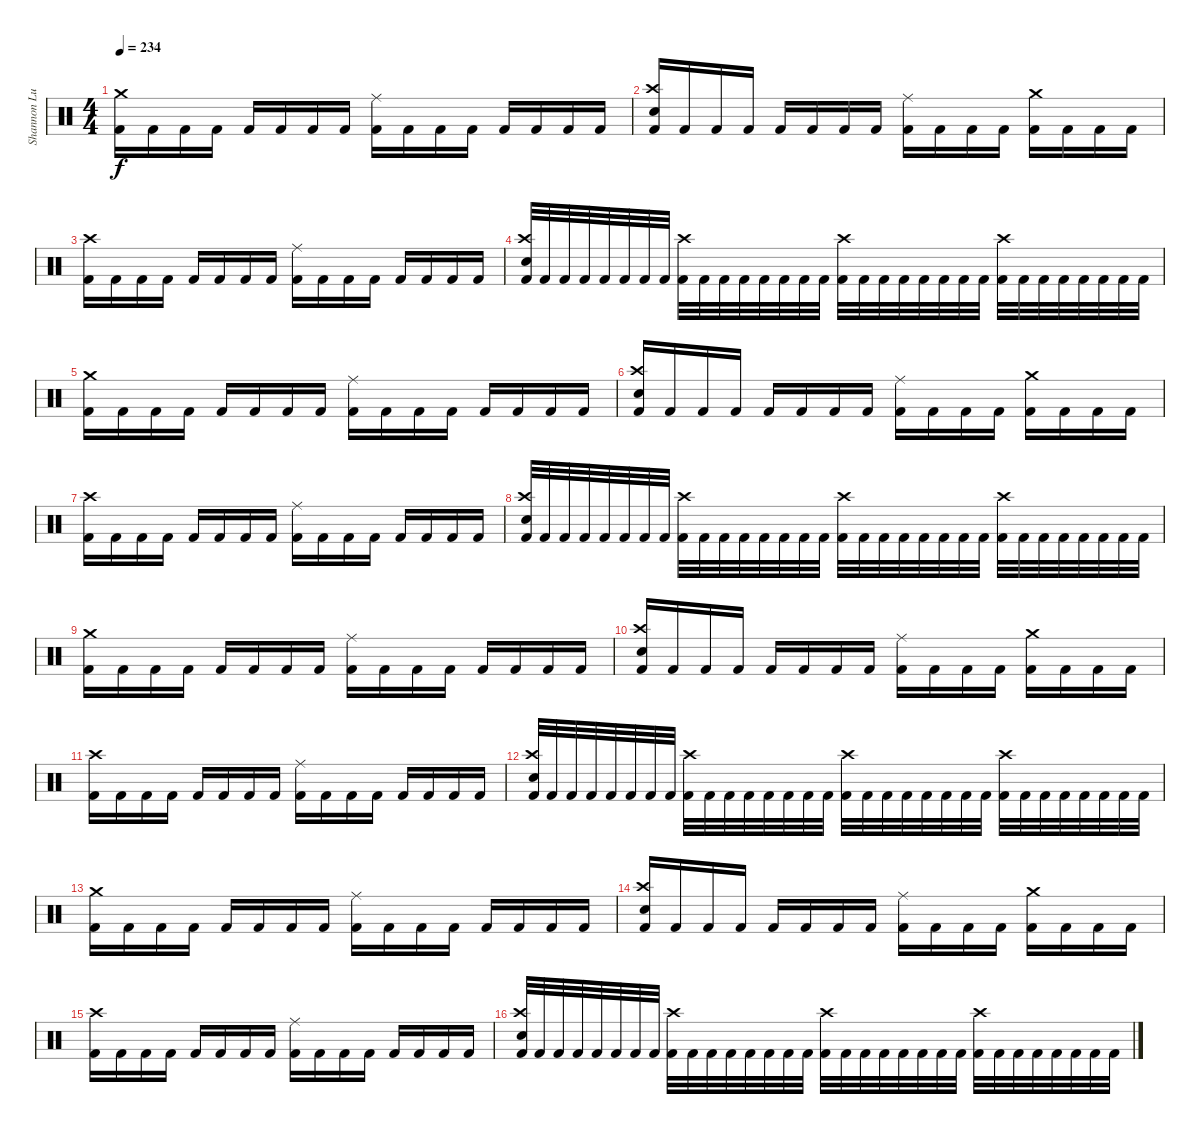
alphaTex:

\track ("Shannon Lucas (Drums)" "Shannon Lu") {instrument percussion}
\staff {score}
\articulation defaults
\ts (4 4)
\tempo 234
\clef neutral
\ks c
("Crash medium (hit)" "Kick (hit) 2").16{dy f} "Kick (hit) 2".16 "Kick (hit) 2".16 "Kick (hit) 2".16 "Kick (hit) 2".16 "Kick (hit) 2".16 "Kick (hit) 2".16 "Kick (hit) 2".16 ("Ride (middle)" "Kick (hit) 2").16 "Kick (hit) 2".16 "Kick (hit) 2".16 "Kick (hit) 2".16 "Kick (hit) 2".16 "Kick (hit) 2".16 "Kick (hit) 2".16 "Kick (hit) 2".16 |
("Crash high (hit)" "Electric Snare (hit)" "Kick (hit) 2").16 "Kick (hit) 2".16 "Kick (hit) 2".16 "Kick (hit) 2".16 "Kick (hit) 2".16 "Kick (hit) 2".16 "Kick (hit) 2".16 "Kick (hit) 2".16 ("Ride (middle)" "Kick (hit) 2").16 "Kick (hit) 2".16 "Kick (hit) 2".16 "Kick (hit) 2".16 ("Crash medium (hit)" "Kick (hit) 2").16 "Kick (hit) 2".16 "Kick (hit) 2".16 "Kick (hit) 2".16 |
("Crash high (hit)" "Kick (hit) 2").16 "Kick (hit) 2".16 "Kick (hit) 2".16 "Kick (hit) 2".16 "Kick (hit) 2".16 "Kick (hit) 2".16 "Kick (hit) 2".16 "Kick (hit) 2".16 ("Ride (middle)" "Kick (hit) 2").16 "Kick (hit) 2".16 "Kick (hit) 2".16 "Kick (hit) 2".16 "Kick (hit) 2".16 "Kick (hit) 2".16 "Kick (hit) 2".16 "Kick (hit) 2".16 |
("Crash high (hit)" "Electric Snare (hit)" "Kick (hit) 2").32 "Kick (hit) 2".32 "Kick (hit) 2".32 "Kick (hit) 2".32 "Kick (hit) 2".32 "Kick (hit) 2".32 "Kick (hit) 2".32 "Kick (hit) 2".32 ("Crash high (hit)" "Kick (hit) 2").32 "Kick (hit) 2".32 "Kick (hit) 2".32 "Kick (hit) 2".32 "Kick (hit) 2".32 "Kick (hit) 2".32 "Kick (hit) 2".32 "Kick (hit) 2".32 ("Crash high (hit)" "Kick (hit) 2").32 "Kick (hit) 2".32 "Kick (hit) 2".32 "Kick (hit) 2".32 "Kick (hit) 2".32 "Kick (hit) 2".32 "Kick (hit) 2".32 "Kick (hit) 2".32 ("Crash high (hit)" "Kick (hit) 2").32 "Kick (hit) 2".32 "Kick (hit) 2".32 "Kick (hit) 2".32 "Kick (hit) 2".32 "Kick (hit) 2".32 "Kick (hit) 2".32 "Kick (hit) 2".32 |
("Crash medium (hit)" "Kick (hit) 2").16 "Kick (hit) 2".16 "Kick (hit) 2".16 "Kick (hit) 2".16 "Kick (hit) 2".16 "Kick (hit) 2".16 "Kick (hit) 2".16 "Kick (hit) 2".16 ("Ride (middle)" "Kick (hit) 2").16 "Kick (hit) 2".16 "Kick (hit) 2".16 "Kick (hit) 2".16 "Kick (hit) 2".16 "Kick (hit) 2".16 "Kick (hit) 2".16 "Kick (hit) 2".16 |
("Crash high (hit)" "Electric Snare (hit)" "Kick (hit) 2").16 "Kick (hit) 2".16 "Kick (hit) 2".16 "Kick (hit) 2".16 "Kick (hit) 2".16 "Kick (hit) 2".16 "Kick (hit) 2".16 "Kick (hit) 2".16 ("Ride (middle)" "Kick (hit) 2").16 "Kick (hit) 2".16 "Kick (hit) 2".16 "Kick (hit) 2".16 ("Crash medium (hit)" "Kick (hit) 2").16 "Kick (hit) 2".16 "Kick (hit) 2".16 "Kick (hit) 2".16 |
("Crash high (hit)" "Kick (hit) 2").16 "Kick (hit) 2".16 "Kick (hit) 2".16 "Kick (hit) 2".16 "Kick (hit) 2".16 "Kick (hit) 2".16 "Kick (hit) 2".16 "Kick (hit) 2".16 ("Ride (middle)" "Kick (hit) 2").16 "Kick (hit) 2".16 "Kick (hit) 2".16 "Kick (hit) 2".16 "Kick (hit) 2".16 "Kick (hit) 2".16 "Kick (hit) 2".16 "Kick (hit) 2".16 |
("Crash high (hit)" "Electric Snare (hit)" "Kick (hit) 2").32 "Kick (hit) 2".32 "Kick (hit) 2".32 "Kick (hit) 2".32 "Kick (hit) 2".32 "Kick (hit) 2".32 "Kick (hit) 2".32 "Kick (hit) 2".32 ("Crash high (hit)" "Kick (hit) 2").32 "Kick (hit) 2".32 "Kick (hit) 2".32 "Kick (hit) 2".32 "Kick (hit) 2".32 "Kick (hit) 2".32 "Kick (hit) 2".32 "Kick (hit) 2".32 ("Crash high (hit)" "Kick (hit) 2").32 "Kick (hit) 2".32 "Kick (hit) 2".32 "Kick (hit) 2".32 "Kick (hit) 2".32 "Kick (hit) 2".32 "Kick (hit) 2".32 "Kick (hit) 2".32 ("Crash high (hit)" "Kick (hit) 2").32 "Kick (hit) 2".32 "Kick (hit) 2".32 "Kick (hit) 2".32 "Kick (hit) 2".32 "Kick (hit) 2".32 "Kick (hit) 2".32 "Kick (hit) 2".32 |
("Crash medium (hit)" "Kick (hit) 2").16 "Kick (hit) 2".16 "Kick (hit) 2".16 "Kick (hit) 2".16 "Kick (hit) 2".16 "Kick (hit) 2".16 "Kick (hit) 2".16 "Kick (hit) 2".16 ("Ride (middle)" "Kick (hit) 2").16 "Kick (hit) 2".16 "Kick (hit) 2".16 "Kick (hit) 2".16 "Kick (hit) 2".16 "Kick (hit) 2".16 "Kick (hit) 2".16 "Kick (hit) 2".16 |
("Crash high (hit)" "Electric Snare (hit)" "Kick (hit) 2").16 "Kick (hit) 2".16 "Kick (hit) 2".16 "Kick (hit) 2".16 "Kick (hit) 2".16 "Kick (hit) 2".16 "Kick (hit) 2".16 "Kick (hit) 2".16 ("Ride (middle)" "Kick (hit) 2").16 "Kick (hit) 2".16 "Kick (hit) 2".16 "Kick (hit) 2".16 ("Crash medium (hit)" "Kick (hit) 2").16 "Kick (hit) 2".16 "Kick (hit) 2".16 "Kick (hit) 2".16 |
("Crash high (hit)" "Kick (hit) 2").16 "Kick (hit) 2".16 "Kick (hit) 2".16 "Kick (hit) 2".16 "Kick (hit) 2".16 "Kick (hit) 2".16 "Kick (hit) 2".16 "Kick (hit) 2".16 ("Ride (middle)" "Kick (hit) 2").16 "Kick (hit) 2".16 "Kick (hit) 2".16 "Kick (hit) 2".16 "Kick (hit) 2".16 "Kick (hit) 2".16 "Kick (hit) 2".16 "Kick (hit) 2".16 |
("Crash high (hit)" "Electric Snare (hit)" "Kick (hit) 2").32 "Kick (hit) 2".32 "Kick (hit) 2".32 "Kick (hit) 2".32 "Kick (hit) 2".32 "Kick (hit) 2".32 "Kick (hit) 2".32 "Kick (hit) 2".32 ("Crash high (hit)" "Kick (hit) 2").32 "Kick (hit) 2".32 "Kick (hit) 2".32 "Kick (hit) 2".32 "Kick (hit) 2".32 "Kick (hit) 2".32 "Kick (hit) 2".32 "Kick (hit) 2".32 ("Crash high (hit)" "Kick (hit) 2").32 "Kick (hit) 2".32 "Kick (hit) 2".32 "Kick (hit) 2".32 "Kick (hit) 2".32 "Kick (hit) 2".32 "Kick (hit) 2".32 "Kick (hit) 2".32 ("Crash high (hit)" "Kick (hit) 2").32 "Kick (hit) 2".32 "Kick (hit) 2".32 "Kick (hit) 2".32 "Kick (hit) 2".32 "Kick (hit) 2".32 "Kick (hit) 2".32 "Kick (hit) 2".32 |
("Crash medium (hit)" "Kick (hit) 2").16 "Kick (hit) 2".16 "Kick (hit) 2".16 "Kick (hit) 2".16 "Kick (hit) 2".16 "Kick (hit) 2".16 "Kick (hit) 2".16 "Kick (hit) 2".16 ("Ride (middle)" "Kick (hit) 2").16 "Kick (hit) 2".16 "Kick (hit) 2".16 "Kick (hit) 2".16 "Kick (hit) 2".16 "Kick (hit) 2".16 "Kick (hit) 2".16 "Kick (hit) 2".16 |
("Crash high (hit)" "Electric Snare (hit)" "Kick (hit) 2").16 "Kick (hit) 2".16 "Kick (hit) 2".16 "Kick (hit) 2".16 "Kick (hit) 2".16 "Kick (hit) 2".16 "Kick (hit) 2".16 "Kick (hit) 2".16 ("Ride (middle)" "Kick (hit) 2").16 "Kick (hit) 2".16 "Kick (hit) 2".16 "Kick (hit) 2".16 ("Crash medium (hit)" "Kick (hit) 2").16 "Kick (hit) 2".16 "Kick (hit) 2".16 "Kick (hit) 2".16 |
("Crash high (hit)" "Kick (hit) 2").16 "Kick (hit) 2".16 "Kick (hit) 2".16 "Kick (hit) 2".16 "Kick (hit) 2".16 "Kick (hit) 2".16 "Kick (hit) 2".16 "Kick (hit) 2".16 ("Ride (middle)" "Kick (hit) 2").16 "Kick (hit) 2".16 "Kick (hit) 2".16 "Kick (hit) 2".16 "Kick (hit) 2".16 "Kick (hit) 2".16 "Kick (hit) 2".16 "Kick (hit) 2".16 |
("Crash high (hit)" "Electric Snare (hit)" "Kick (hit) 2").32 "Kick (hit) 2".32 "Kick (hit) 2".32 "Kick (hit) 2".32 "Kick (hit) 2".32 "Kick (hit) 2".32 "Kick (hit) 2".32 "Kick (hit) 2".32 ("Crash high (hit)" "Kick (hit) 2").32 "Kick (hit) 2".32 "Kick (hit) 2".32 "Kick (hit) 2".32 "Kick (hit) 2".32 "Kick (hit) 2".32 "Kick (hit) 2".32 "Kick (hit) 2".32 ("Crash high (hit)" "Kick (hit) 2").32 "Kick (hit) 2".32 "Kick (hit) 2".32 "Kick (hit) 2".32 "Kick (hit) 2".32 "Kick (hit) 2".32 "Kick (hit) 2".32 "Kick (hit) 2".32 ("Crash high (hit)" "Kick (hit) 2").32 "Kick (hit) 2".32 "Kick (hit) 2".32 "Kick (hit) 2".32 "Kick (hit) 2".32 "Kick (hit) 2".32 "Kick (hit) 2".32 "Kick (hit) 2".32
